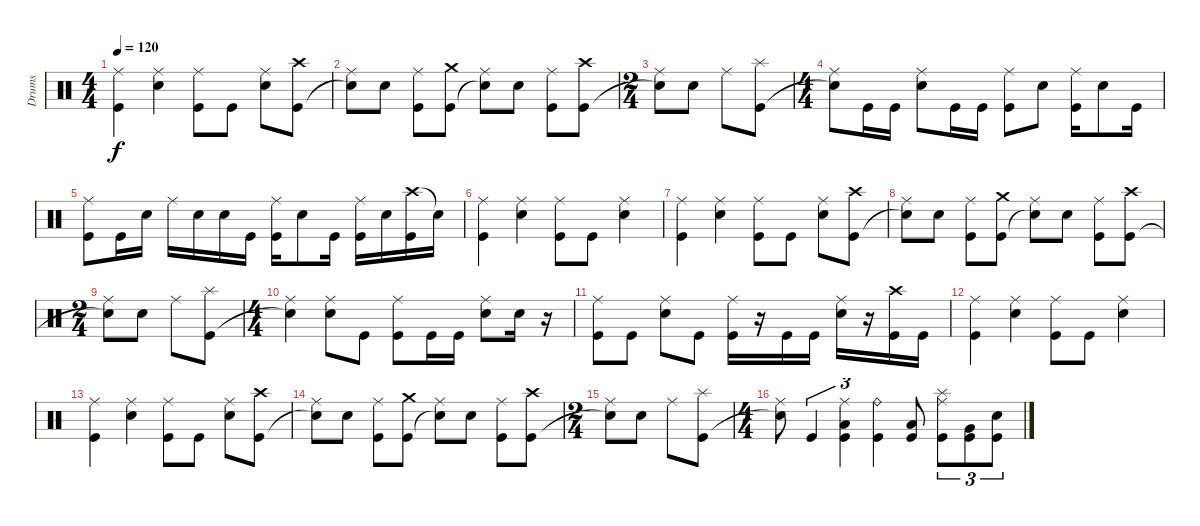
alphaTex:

\track ("Drums" "Drums") {instrument percussion}
\staff {score}
\articulation defaults
\ts (4 4)
\tempo 120
\clef neutral
\ks c
("Ride (middle)" "Kick (hit)").4{dy f} ("Ride (middle)" "Electric Snare (hit)").4 ("Ride (middle)" "Kick (hit)").8 "Kick (hit)".8 ("Ride (middle)" "Electric Snare (hit)").8 ("Crash high (hit)" "Kick (hit)").8 |
("Ride (middle)" "Snare (hit)"{t}).8 "Electric Snare (hit)".8 ("Ride (middle)" "Kick (hit)").8 ("Crash medium (hit)" "Kick (hit)").8 ("Ride (middle)" "Snare (hit)"{t}).8 "Electric Snare (hit)".8 ("Ride (middle)" "Kick (hit)").8 ("Crash high (hit)" "Kick (hit)").8 |
\ts (2 4)
("Ride (middle)" "Snare (hit)"{t}).8 "Electric Snare (hit)".8 "Ride (middle)".8 ("Splash (hit)" "Kick (hit)").8 |
\ts (4 4)
("Ride (middle)" "Snare (hit)"{t}).8 "Kick (hit)".16 "Kick (hit)".16 ("Ride (middle)" "Electric Snare (hit)").8 "Kick (hit)".16 "Kick (hit)".16 ("Ride (middle)" "Kick (hit)").8 "Electric Snare (hit)".8 ("Ride (middle)" "Kick (hit)").16 "Electric Snare (hit)".8 "Kick (hit)".16 |
("Ride (middle)" "Kick (hit)").8 "Kick (hit)".16 "Electric Snare (hit)".16 "Ride (middle)".16 "Electric Snare (hit)".16 "Electric Snare (hit)".16 "Kick (hit)".16 ("Ride (middle)" "Kick (hit)").16 "Electric Snare (hit)".8 "Kick (hit)".16 ("Ride (middle)" "Kick (hit)").16 "Electric Snare (hit)".16 ("Crash high (hit)" "Kick (hit)").16 "Snare (hit)"{t}.16 |
("Ride (middle)" "Kick (hit)").4 ("Ride (middle)" "Electric Snare (hit)").4 ("Ride (middle)" "Kick (hit)").8 "Kick (hit)".8 ("Ride (middle)" "Electric Snare (hit)").4 |
("Ride (middle)" "Kick (hit)").4 ("Ride (middle)" "Electric Snare (hit)").4 ("Ride (middle)" "Kick (hit)").8 "Kick (hit)".8 ("Ride (middle)" "Electric Snare (hit)").8 ("Crash high (hit)" "Kick (hit)").8 |
("Ride (middle)" "Snare (hit)"{t}).8 "Electric Snare (hit)".8 ("Ride (middle)" "Kick (hit)").8 ("Crash medium (hit)" "Kick (hit)").8 ("Ride (middle)" "Snare (hit)"{t}).8 "Electric Snare (hit)".8 ("Ride (middle)" "Kick (hit)").8 ("Crash high (hit)" "Kick (hit)").8 |
\ts (2 4)
("Ride (middle)" "Snare (hit)"{t}).8 "Electric Snare (hit)".8 "Ride (middle)".8 ("Splash (hit)" "Kick (hit)").8 |
\ts (4 4)
("Ride (middle)" "Snare (hit)"{t}).4 ("Ride (middle)" "Electric Snare (hit)").8 "Kick (hit)".8 ("Ride (middle)" "Kick (hit)").8 "Kick (hit)".16 "Kick (hit)".16 ("Ride (middle)" "Electric Snare (hit)").8 "Electric Snare (hit)".16 r.16 |
("Ride (middle)" "Kick (hit)").8 "Kick (hit)".8 ("Ride (middle)" "Electric Snare (hit)").8 "Kick (hit)".8 ("Ride (middle)" "Kick (hit)").16 r.16 "Kick (hit)".16 "Kick (hit)".16 ("Ride (middle)" "Electric Snare (hit)").16 r.16 ("Crash high (hit)" "Kick (hit)").16 "Kick (hit)".16 |
("Ride (middle)" "Kick (hit)").4 ("Ride (middle)" "Electric Snare (hit)").4 ("Ride (middle)" "Kick (hit)").8 "Kick (hit)".8 ("Ride (middle)" "Electric Snare (hit)").4 |
("Ride (middle)" "Kick (hit)").4 ("Ride (middle)" "Electric Snare (hit)").4 ("Ride (middle)" "Kick (hit)").8 "Kick (hit)".8 ("Ride (middle)" "Electric Snare (hit)").8 ("Crash high (hit)" "Kick (hit)").8 |
("Ride (middle)" "Snare (hit)"{t}).8 "Electric Snare (hit)".8 ("Ride (middle)" "Kick (hit)").8 ("Crash medium (hit)" "Kick (hit)").8 ("Ride (middle)" "Snare (hit)"{t}).8 "Electric Snare (hit)".8 ("Ride (middle)" "Kick (hit)").8 ("Crash high (hit)" "Kick (hit)").8 |
\ts (2 4)
("Ride (middle)" "Snare (hit)"{t}).8 "Electric Snare (hit)".8 "Ride (middle)".8 ("Splash (hit)" "Kick (hit)").8 |
\ts (4 4)
("Ride (middle)" "Snare (hit)"{t}).8 "Kick (hit)".4{tu (3 2)} ("Ride (middle)" "Low Floor Tom (hit)" "Kick (hit)").4{tu (3 2)} ("Ride (bell)" "Kick (hit)").4{tu (3 2)} ("Low Tom (hit)" "Kick (hit)").8 ("Ride (middle)" "Splash (hit)" "Kick (hit)").8{tu (3 2)} ("Very Low Tom (hit)" "Kick (hit)").8{tu (3 2)} ("Electric Snare (hit)" "Kick (hit)").8{tu (3 2)}
